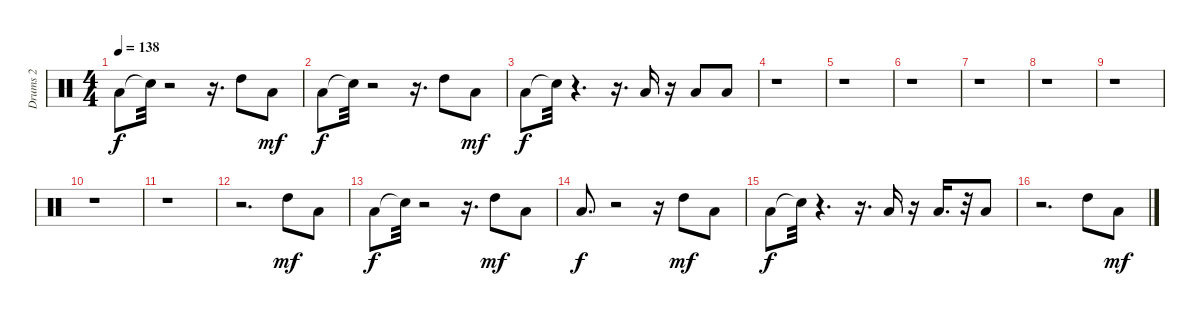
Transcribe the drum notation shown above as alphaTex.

\track ("Drums 2" "Drums 2") {instrument percussion}
\staff {score}
\articulation defaults
\ts (4 4)
\tempo 138
\clef neutral
\ks c "Low Floor Tom (hit)".8{dy f} "Snare (hit)"{t}.32
r.2 r.16{d} "High Tom (hit)".8 "Low Tom (hit)".8{dy mf} |
"Low Floor Tom (hit)".8{dy f} "Snare (hit)"{t}.32 r.2 r.16{d} "High Tom (hit)".8 "Low Tom (hit)".8{dy mf} |
"Low Floor Tom (hit)".8{dy f} "Snare (hit)"{t}.32 r.4{d} r.16{d} "Low Floor Tom (hit)".16 r.16 "Low Floor Tom (hit)".8 "Low Tom (hit)".8 |
r.1 |
r.1 |
r.1 |
r.1 |
r.1 |
r.1 |
r.1 |
r.1 |
r.2{d} "High Tom (hit)".8{dy mf} "Low Tom (hit)".8 |
"Low Floor Tom (hit)".8{dy f} "Snare (hit)"{t}.32 r.2 r.16{d} "High Tom (hit)".8{dy mf} "Low Tom (hit)".8 |
"Low Floor Tom (hit)".8{d dy f} r.2 r.16 "High Tom (hit)".8{dy mf} "Low Tom (hit)".8 |
"Low Floor Tom (hit)".8{dy f} "Snare (hit)"{t}.32 r.4{d} r.16{d} "Low Floor Tom (hit)".16 r.16 "Low Floor Tom (hit)".16{d} r.32 "Low Tom (hit)".8 |
r.2{d} "High Tom (hit)".8 "Low Tom (hit)".8{dy mf}
